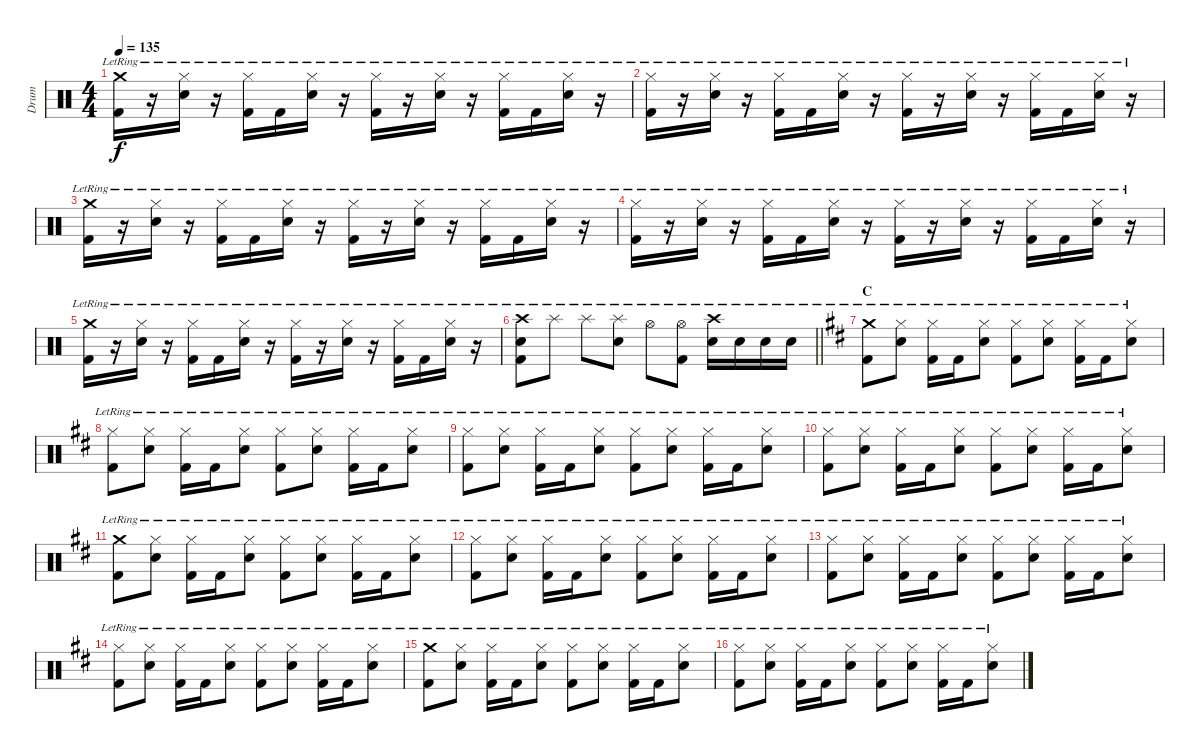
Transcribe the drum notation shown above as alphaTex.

\track ("Drum" "Drum") {instrument percussion}
\staff {score}
\articulation defaults
\ts (4 4)
\tempo 135
\clef neutral
\ks c
("Crash medium (hit)"{lr} "Kick (hit) 2"{lr}).16{dy f} r.16 ("Hi-Hat (closed)"{lr} "Snare (hit) 2"{lr}).16 r.16 ("Hi-Hat (closed)"{lr} "Kick (hit) 2"{lr}).16 "Kick (hit) 2"{lr}.16 ("Hi-Hat (closed)"{lr} "Snare (hit) 2"{lr}).16 r.16 ("Hi-Hat (closed)"{lr} "Kick (hit) 2"{lr}).16 r.16 ("Hi-Hat (closed)"{lr} "Snare (hit) 2"{lr}).16 r.16 ("Hi-Hat (closed)"{lr} "Kick (hit) 2"{lr}).16 "Kick (hit) 2"{lr}.16 ("Hi-Hat (closed)"{lr} "Snare (hit) 2"{lr}).16 r.16 |
("Hi-Hat (closed)"{lr} "Kick (hit) 2"{lr}).16 r.16 ("Hi-Hat (closed)"{lr} "Snare (hit) 2"{lr}).16 r.16 ("Hi-Hat (closed)"{lr} "Kick (hit) 2"{lr}).16 "Kick (hit) 2"{lr}.16 ("Hi-Hat (closed)"{lr} "Snare (hit) 2"{lr}).16 r.16 ("Hi-Hat (closed)"{lr} "Kick (hit) 2"{lr}).16 r.16 ("Hi-Hat (closed)"{lr} "Snare (hit) 2"{lr}).16 r.16 ("Hi-Hat (closed)"{lr} "Kick (hit) 2"{lr}).16 "Kick (hit) 2"{lr}.16 ("Hi-Hat (closed)"{lr} "Snare (hit) 2"{lr}).16 r.16 |
("Crash medium (hit)"{lr} "Kick (hit) 2"{lr}).16 r.16 ("Hi-Hat (closed)"{lr} "Snare (hit) 2"{lr}).16 r.16 ("Hi-Hat (closed)"{lr} "Kick (hit) 2"{lr}).16 "Kick (hit) 2"{lr}.16 ("Hi-Hat (closed)"{lr} "Snare (hit) 2"{lr}).16 r.16 ("Hi-Hat (closed)"{lr} "Kick (hit) 2"{lr}).16 r.16 ("Hi-Hat (closed)"{lr} "Snare (hit) 2"{lr}).16 r.16 ("Hi-Hat (closed)"{lr} "Kick (hit) 2"{lr}).16 "Kick (hit) 2"{lr}.16 ("Hi-Hat (closed)"{lr} "Snare (hit) 2"{lr}).16 r.16 |
("Hi-Hat (closed)"{lr} "Kick (hit) 2"{lr}).16 r.16 ("Hi-Hat (closed)"{lr} "Snare (hit) 2"{lr}).16 r.16 ("Hi-Hat (closed)"{lr} "Kick (hit) 2"{lr}).16 "Kick (hit) 2"{lr}.16 ("Hi-Hat (closed)"{lr} "Snare (hit) 2"{lr}).16 r.16 ("Hi-Hat (closed)"{lr} "Kick (hit) 2"{lr}).16 r.16 ("Hi-Hat (closed)"{lr} "Snare (hit) 2"{lr}).16 r.16 ("Hi-Hat (closed)"{lr} "Kick (hit) 2"{lr}).16 "Kick (hit) 2"{lr}.16 ("Hi-Hat (closed)"{lr} "Snare (hit) 2"{lr}).16 r.16 |
("Crash medium (hit)"{lr} "Kick (hit) 2"{lr}).16 r.16 ("Hi-Hat (closed)"{lr} "Snare (hit) 2"{lr}).16 r.16 ("Hi-Hat (closed)"{lr} "Kick (hit) 2"{lr}).16 "Kick (hit) 2"{lr}.16 ("Hi-Hat (closed)"{lr} "Snare (hit) 2"{lr}).16 r.16 ("Hi-Hat (closed)"{lr} "Kick (hit) 2"{lr}).16 r.16 ("Hi-Hat (closed)"{lr} "Snare (hit) 2"{lr}).16 r.16 ("Hi-Hat (closed)"{lr} "Kick (hit) 2"{lr}).16 "Kick (hit) 2"{lr}.16 ("Hi-Hat (closed)"{lr} "Snare (hit) 2"{lr}).16 r.16 |
\barLineRight lightlight
("Crash high (hit)"{lr} "Snare (hit) 2"{lr} "Kick (hit) 2"{lr}).8 "Splash (hit)"{lr}.8 "Splash (hit)"{lr}.8 ("Splash (hit)"{lr} "Snare (hit) 2"{lr}).8 "Hi-Hat (open)"{lr}.8 ("Hi-Hat (open)"{lr} "Kick (hit) 2"{lr}).8 ("Crash high (hit)"{lr} "Snare (hit) 2"{lr}).16 "Snare (hit) 2"{lr}.16 "Snare (hit) 2"{lr}.16 "Snare (hit) 2"{lr}.16 |
\section ("" "C")
\ks bminor
("Crash medium (hit)"{lr} "Kick (hit) 2"{lr}).8 ("Hi-Hat (closed)"{lr} "Snare (hit) 2"{lr}).8 ("Hi-Hat (closed)"{lr} "Kick (hit) 2"{lr}).16 "Kick (hit) 2"{lr}.16 ("Hi-Hat (closed)"{lr} "Snare (hit) 2"{lr}).8 ("Hi-Hat (closed)"{lr} "Kick (hit) 2"{lr}).8 ("Hi-Hat (closed)"{lr} "Snare (hit) 2"{lr}).8 ("Hi-Hat (closed)"{lr} "Kick (hit) 2"{lr}).16 "Kick (hit) 2"{lr}.16 ("Hi-Hat (closed)"{lr} "Snare (hit) 2"{lr}).8 |
("Hi-Hat (closed)"{lr} "Kick (hit) 2"{lr}).8 ("Hi-Hat (closed)"{lr} "Snare (hit) 2"{lr}).8 ("Hi-Hat (closed)"{lr} "Kick (hit) 2"{lr}).16 "Kick (hit) 2"{lr}.16 ("Hi-Hat (closed)"{lr} "Snare (hit) 2"{lr}).8 ("Hi-Hat (closed)"{lr} "Kick (hit) 2"{lr}).8 ("Hi-Hat (closed)"{lr} "Snare (hit) 2"{lr}).8 ("Hi-Hat (closed)"{lr} "Kick (hit) 2"{lr}).16 "Kick (hit) 2"{lr}.16 ("Hi-Hat (closed)"{lr} "Snare (hit) 2"{lr}).8 |
("Hi-Hat (closed)"{lr} "Kick (hit) 2"{lr}).8 ("Hi-Hat (closed)"{lr} "Snare (hit) 2"{lr}).8 ("Hi-Hat (closed)"{lr} "Kick (hit) 2"{lr}).16 "Kick (hit) 2"{lr}.16 ("Hi-Hat (closed)"{lr} "Snare (hit) 2"{lr}).8 ("Hi-Hat (closed)"{lr} "Kick (hit) 2"{lr}).8 ("Hi-Hat (closed)"{lr} "Snare (hit) 2"{lr}).8 ("Hi-Hat (closed)"{lr} "Kick (hit) 2"{lr}).16 "Kick (hit) 2"{lr}.16 ("Hi-Hat (closed)"{lr} "Snare (hit) 2"{lr}).8 |
("Hi-Hat (closed)"{lr} "Kick (hit) 2"{lr}).8 ("Hi-Hat (closed)"{lr} "Snare (hit) 2"{lr}).8 ("Hi-Hat (closed)"{lr} "Kick (hit) 2"{lr}).16 "Kick (hit) 2"{lr}.16 ("Hi-Hat (closed)"{lr} "Snare (hit) 2"{lr}).8 ("Hi-Hat (closed)"{lr} "Kick (hit) 2"{lr}).8 ("Hi-Hat (closed)"{lr} "Snare (hit) 2"{lr}).8 ("Hi-Hat (closed)"{lr} "Kick (hit) 2"{lr}).16 "Kick (hit) 2"{lr}.16 ("Hi-Hat (closed)"{lr} "Snare (hit) 2"{lr}).8 |
("Crash medium (hit)"{lr} "Kick (hit) 2"{lr}).8 ("Hi-Hat (closed)"{lr} "Snare (hit) 2"{lr}).8 ("Hi-Hat (closed)"{lr} "Kick (hit) 2"{lr}).16 "Kick (hit) 2"{lr}.16 ("Hi-Hat (closed)"{lr} "Snare (hit) 2"{lr}).8 ("Hi-Hat (closed)"{lr} "Kick (hit) 2"{lr}).8 ("Hi-Hat (closed)"{lr} "Snare (hit) 2"{lr}).8 ("Hi-Hat (closed)"{lr} "Kick (hit) 2"{lr}).16 "Kick (hit) 2"{lr}.16 ("Hi-Hat (closed)"{lr} "Snare (hit) 2"{lr}).8 |
("Hi-Hat (closed)"{lr} "Kick (hit) 2"{lr}).8 ("Hi-Hat (closed)"{lr} "Snare (hit) 2"{lr}).8 ("Hi-Hat (closed)"{lr} "Kick (hit) 2"{lr}).16 "Kick (hit) 2"{lr}.16 ("Hi-Hat (closed)"{lr} "Snare (hit) 2"{lr}).8 ("Hi-Hat (closed)"{lr} "Kick (hit) 2"{lr}).8 ("Hi-Hat (closed)"{lr} "Snare (hit) 2"{lr}).8 ("Hi-Hat (closed)"{lr} "Kick (hit) 2"{lr}).16 "Kick (hit) 2"{lr}.16 ("Hi-Hat (closed)"{lr} "Snare (hit) 2"{lr}).8 |
("Hi-Hat (closed)"{lr} "Kick (hit) 2"{lr}).8 ("Hi-Hat (closed)"{lr} "Snare (hit) 2"{lr}).8 ("Hi-Hat (closed)"{lr} "Kick (hit) 2"{lr}).16 "Kick (hit) 2"{lr}.16 ("Hi-Hat (closed)"{lr} "Snare (hit) 2"{lr}).8 ("Hi-Hat (closed)"{lr} "Kick (hit) 2"{lr}).8 ("Hi-Hat (closed)"{lr} "Snare (hit) 2"{lr}).8 ("Hi-Hat (closed)"{lr} "Kick (hit) 2"{lr}).16 "Kick (hit) 2"{lr}.16 ("Hi-Hat (closed)"{lr} "Snare (hit) 2"{lr}).8 |
("Hi-Hat (closed)"{lr} "Kick (hit) 2"{lr}).8 ("Hi-Hat (closed)"{lr} "Snare (hit) 2"{lr}).8 ("Hi-Hat (closed)"{lr} "Kick (hit) 2"{lr}).16 "Kick (hit) 2"{lr}.16 ("Hi-Hat (closed)"{lr} "Snare (hit) 2"{lr}).8 ("Hi-Hat (closed)"{lr} "Kick (hit) 2"{lr}).8 ("Hi-Hat (closed)"{lr} "Snare (hit) 2"{lr}).8 ("Hi-Hat (closed)"{lr} "Kick (hit) 2"{lr}).16 "Kick (hit) 2"{lr}.16 ("Hi-Hat (closed)"{lr} "Snare (hit) 2"{lr}).8 |
("Crash medium (hit)"{lr} "Kick (hit) 2"{lr}).8 ("Hi-Hat (closed)"{lr} "Snare (hit) 2"{lr}).8 ("Hi-Hat (closed)"{lr} "Kick (hit) 2"{lr}).16 "Kick (hit) 2"{lr}.16 ("Hi-Hat (closed)"{lr} "Snare (hit) 2"{lr}).8 ("Hi-Hat (closed)"{lr} "Kick (hit) 2"{lr}).8 ("Hi-Hat (closed)"{lr} "Snare (hit) 2"{lr}).8 ("Hi-Hat (closed)"{lr} "Kick (hit) 2"{lr}).16 "Kick (hit) 2"{lr}.16 ("Hi-Hat (closed)"{lr} "Snare (hit) 2"{lr}).8 |
("Hi-Hat (closed)"{lr} "Kick (hit) 2"{lr}).8 ("Hi-Hat (closed)"{lr} "Snare (hit) 2"{lr}).8 ("Hi-Hat (closed)"{lr} "Kick (hit) 2"{lr}).16 "Kick (hit) 2"{lr}.16 ("Hi-Hat (closed)"{lr} "Snare (hit) 2"{lr}).8 ("Hi-Hat (closed)"{lr} "Kick (hit) 2"{lr}).8 ("Hi-Hat (closed)"{lr} "Snare (hit) 2"{lr}).8 ("Hi-Hat (closed)"{lr} "Kick (hit) 2"{lr}).16 "Kick (hit) 2"{lr}.16 ("Hi-Hat (closed)"{lr} "Snare (hit) 2"{lr}).8
